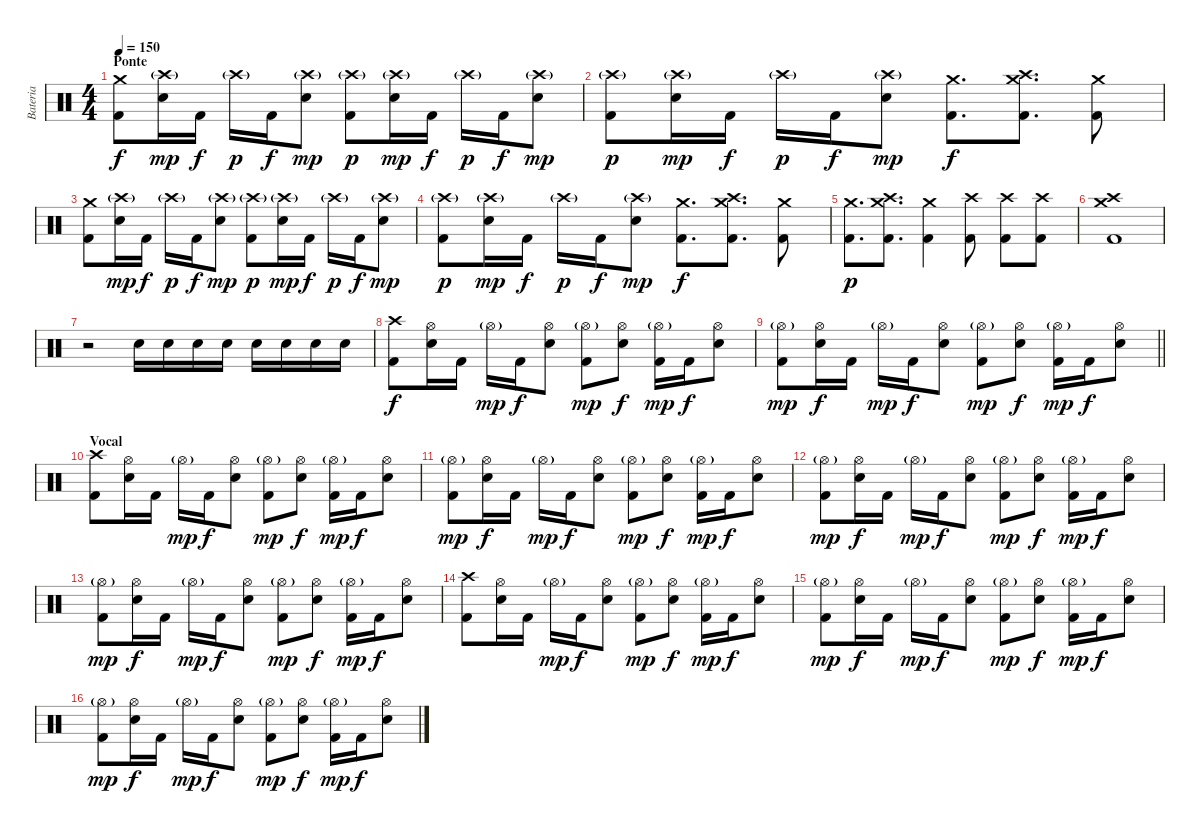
\track ("Bateria" "Bateria") {instrument percussion}
\staff {score}
\articulation defaults
\ts (4 4)
\section ("" "Ponte")
\tempo 150
\clef neutral
\ks c
("Crash medium (hit)" "Kick (hit) 2").8{dy f} ("Crash high (hit)"{g} "Electric Snare (hit)").16{dy mp} "Kick (hit) 2".16{dy f} "Crash high (hit)"{g}.16{dy p} "Kick (hit) 2".16{dy f} ("Crash high (hit)"{g} "Electric Snare (hit)").8{dy mp} ("Crash high (hit)"{g} "Kick (hit) 2").8{dy p} ("Crash high (hit)"{g} "Electric Snare (hit)").16{dy mp} "Kick (hit) 2".16{dy f} "Crash high (hit)"{g}.16{dy p} "Kick (hit) 2".16{dy f} ("Crash high (hit)"{g} "Electric Snare (hit)").8{dy mp} |
("Crash high (hit)"{g} "Kick (hit) 2").8{dy p} ("Crash high (hit)"{g} "Electric Snare (hit)").16{dy mp} "Kick (hit) 2".16{dy f} "Crash high (hit)"{g}.16{dy p} "Kick (hit) 2".16{dy f} ("Crash high (hit)"{g} "Electric Snare (hit)").8{dy mp} ("Crash medium (hit)" "Kick (hit) 2").8{d dy f} ("Crash medium (hit)" "Crash high (hit)" "Kick (hit) 2").8{d} ("Crash medium (hit)" "Kick (hit) 2").8 |
("Crash medium (hit)" "Kick (hit) 2").8 ("Crash high (hit)"{g} "Electric Snare (hit)").16{dy mp} "Kick (hit) 2".16{dy f} "Crash high (hit)"{g}.16{dy p} "Kick (hit) 2".16{dy f} ("Crash high (hit)"{g} "Electric Snare (hit)").8{dy mp} ("Crash high (hit)"{g} "Kick (hit) 2").8{dy p} ("Crash high (hit)"{g} "Electric Snare (hit)").16{dy mp} "Kick (hit) 2".16{dy f} "Crash high (hit)"{g}.16{dy p} "Kick (hit) 2".16{dy f} ("Crash high (hit)"{g} "Electric Snare (hit)").8{dy mp} |
("Crash high (hit)"{g} "Kick (hit) 2").8{dy p} ("Crash high (hit)"{g} "Electric Snare (hit)").16{dy mp} "Kick (hit) 2".16{dy f} "Crash high (hit)"{g}.16{dy p} "Kick (hit) 2".16{dy f} ("Crash high (hit)"{g} "Electric Snare (hit)").8{dy mp} ("Crash medium (hit)" "Kick (hit) 2").8{d dy f} ("Crash medium (hit)" "Crash high (hit)" "Kick (hit) 2").8{d} ("Crash medium (hit)" "Kick (hit) 2").8 |
("Crash medium (hit)" "Kick (hit) 2").8{d dy p} ("Crash medium (hit)" "Crash high (hit)" "Kick (hit) 2").8{d} ("Crash medium (hit)" "Kick (hit) 2").4 ("Crash high (hit)" "Kick (hit) 2").8 ("Crash high (hit)" "Kick (hit) 2").8 ("Crash high (hit)" "Kick (hit) 2").8 |
("Crash high (hit)" "Crash medium (hit)" "Kick (hit) 2").1 |
r.2 "Electric Snare (hit)".16 "Electric Snare (hit)".16 "Electric Snare (hit)".16 "Electric Snare (hit)".16 "Electric Snare (hit)".16 "Electric Snare (hit)".16 "Electric Snare (hit)".16 "Electric Snare (hit)".16 |
("Crash high (hit)" "Kick (hit) 2").8{dy f} ("Hi-Hat (open)" "Electric Snare (hit)").16 "Kick (hit) 2".16 "Hi-Hat (open)"{g}.16{dy mp} "Kick (hit) 2".16{dy f} ("Hi-Hat (open)" "Electric Snare (hit)").8 ("Hi-Hat (open)"{g} "Kick (hit) 2").8{dy mp} ("Hi-Hat (open)" "Electric Snare (hit)").8{dy f} ("Hi-Hat (open)"{g} "Kick (hit) 2").16{dy mp} "Kick (hit) 2".16{dy f} ("Hi-Hat (open)" "Electric Snare (hit)").8 |
\barLineRight lightlight
("Hi-Hat (open)"{g} "Kick (hit) 2").8{dy mp} ("Hi-Hat (open)" "Electric Snare (hit)").16{dy f} "Kick (hit) 2".16 "Hi-Hat (open)"{g}.16{dy mp} "Kick (hit) 2".16{dy f} ("Hi-Hat (open)" "Electric Snare (hit)").8 ("Hi-Hat (open)"{g} "Kick (hit) 2").8{dy mp} ("Hi-Hat (open)" "Electric Snare (hit)").8{dy f} ("Hi-Hat (open)"{g} "Kick (hit) 2").16{dy mp} "Kick (hit) 2".16{dy f} ("Hi-Hat (open)" "Electric Snare (hit)").8 |
\section ("" "Vocal")
("Crash high (hit)" "Kick (hit) 2").8 ("Hi-Hat (open)" "Electric Snare (hit)").16 "Kick (hit) 2".16 "Hi-Hat (open)"{g}.16{dy mp} "Kick (hit) 2".16{dy f} ("Hi-Hat (open)" "Electric Snare (hit)").8 ("Hi-Hat (open)"{g} "Kick (hit) 2").8{dy mp} ("Hi-Hat (open)" "Electric Snare (hit)").8{dy f} ("Hi-Hat (open)"{g} "Kick (hit) 2").16{dy mp} "Kick (hit) 2".16{dy f} ("Hi-Hat (open)" "Electric Snare (hit)").8 |
("Hi-Hat (open)"{g} "Kick (hit) 2").8{dy mp} ("Hi-Hat (open)" "Electric Snare (hit)").16{dy f} "Kick (hit) 2".16 "Hi-Hat (open)"{g}.16{dy mp} "Kick (hit) 2".16{dy f} ("Hi-Hat (open)" "Electric Snare (hit)").8 ("Hi-Hat (open)"{g} "Kick (hit) 2").8{dy mp} ("Hi-Hat (open)" "Electric Snare (hit)").8{dy f} ("Hi-Hat (open)"{g} "Kick (hit) 2").16{dy mp} "Kick (hit) 2".16{dy f} ("Hi-Hat (open)" "Electric Snare (hit)").8 |
("Hi-Hat (open)"{g} "Kick (hit) 2").8{dy mp} ("Hi-Hat (open)" "Electric Snare (hit)").16{dy f} "Kick (hit) 2".16 "Hi-Hat (open)"{g}.16{dy mp} "Kick (hit) 2".16{dy f} ("Hi-Hat (open)" "Electric Snare (hit)").8 ("Hi-Hat (open)"{g} "Kick (hit) 2").8{dy mp} ("Hi-Hat (open)" "Electric Snare (hit)").8{dy f} ("Hi-Hat (open)"{g} "Kick (hit) 2").16{dy mp} "Kick (hit) 2".16{dy f} ("Hi-Hat (open)" "Electric Snare (hit)").8 |
("Hi-Hat (open)"{g} "Kick (hit) 2").8{dy mp} ("Hi-Hat (open)" "Electric Snare (hit)").16{dy f} "Kick (hit) 2".16 "Hi-Hat (open)"{g}.16{dy mp} "Kick (hit) 2".16{dy f} ("Hi-Hat (open)" "Electric Snare (hit)").8 ("Hi-Hat (open)"{g} "Kick (hit) 2").8{dy mp} ("Hi-Hat (open)" "Electric Snare (hit)").8{dy f} ("Hi-Hat (open)"{g} "Kick (hit) 2").16{dy mp} "Kick (hit) 2".16{dy f} ("Hi-Hat (open)" "Electric Snare (hit)").8 |
("Crash high (hit)" "Kick (hit) 2").8 ("Hi-Hat (open)" "Electric Snare (hit)").16 "Kick (hit) 2".16 "Hi-Hat (open)"{g}.16{dy mp} "Kick (hit) 2".16{dy f} ("Hi-Hat (open)" "Electric Snare (hit)").8 ("Hi-Hat (open)"{g} "Kick (hit) 2").8{dy mp} ("Hi-Hat (open)" "Electric Snare (hit)").8{dy f} ("Hi-Hat (open)"{g} "Kick (hit) 2").16{dy mp} "Kick (hit) 2".16{dy f} ("Hi-Hat (open)" "Electric Snare (hit)").8 |
("Hi-Hat (open)"{g} "Kick (hit) 2").8{dy mp} ("Hi-Hat (open)" "Electric Snare (hit)").16{dy f} "Kick (hit) 2".16 "Hi-Hat (open)"{g}.16{dy mp} "Kick (hit) 2".16{dy f} ("Hi-Hat (open)" "Electric Snare (hit)").8 ("Hi-Hat (open)"{g} "Kick (hit) 2").8{dy mp} ("Hi-Hat (open)" "Electric Snare (hit)").8{dy f} ("Hi-Hat (open)"{g} "Kick (hit) 2").16{dy mp} "Kick (hit) 2".16{dy f} ("Hi-Hat (open)" "Electric Snare (hit)").8 |
("Hi-Hat (open)"{g} "Kick (hit) 2").8{dy mp} ("Hi-Hat (open)" "Electric Snare (hit)").16{dy f} "Kick (hit) 2".16 "Hi-Hat (open)"{g}.16{dy mp} "Kick (hit) 2".16{dy f} ("Hi-Hat (open)" "Electric Snare (hit)").8 ("Hi-Hat (open)"{g} "Kick (hit) 2").8{dy mp} ("Hi-Hat (open)" "Electric Snare (hit)").8{dy f} ("Hi-Hat (open)"{g} "Kick (hit) 2").16{dy mp} "Kick (hit) 2".16{dy f} ("Hi-Hat (open)" "Electric Snare (hit)").8
